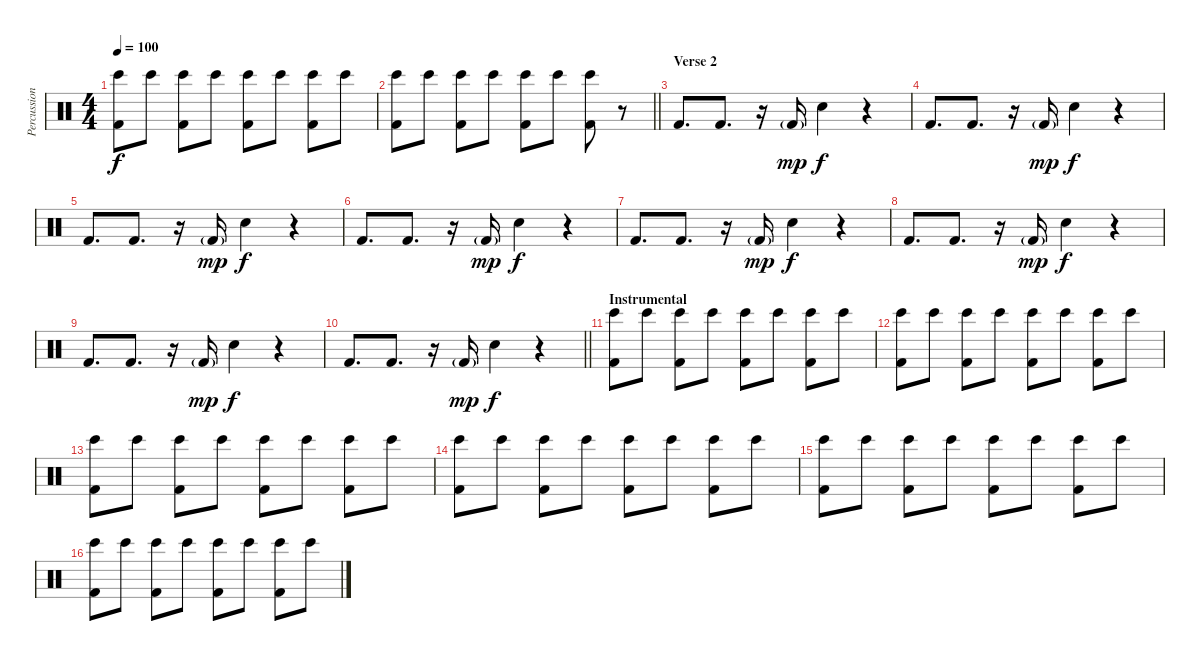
\track ("Percussion" "Percussion") {instrument percussion}
\staff {score}
\articulation defaults
\ts (4 4)
\tempo 100
\clef neutral
\ks c
("Bongo High (hit)" "Kick (hit) 2").8{dy f} "Bongo High (hit)".8 ("Bongo High (hit)" "Kick (hit) 2").8 "Bongo High (hit)".8 ("Bongo High (hit)" "Kick (hit) 2").8 "Bongo High (hit)".8 ("Bongo High (hit)" "Kick (hit) 2").8 "Bongo High (hit)".8 |
\barLineRight lightlight
("Bongo High (hit)" "Kick (hit) 2").8 "Bongo High (hit)".8 ("Bongo High (hit)" "Kick (hit) 2").8 "Bongo High (hit)".8 ("Bongo High (hit)" "Kick (hit) 2").8 "Bongo High (hit)".8 ("Bongo High (hit)" "Kick (hit) 2").8 r.8 |
\section ("" "Verse 2")
"Kick (hit) 2".8{d} "Kick (hit) 2".8{d} r.16 "Kick (hit) 2"{g}.16{dy mp} "Snare (hit) 2".4{dy f} r.4 |
"Kick (hit) 2".8{d} "Kick (hit) 2".8{d} r.16 "Kick (hit) 2"{g}.16{dy mp} "Snare (hit) 2".4{dy f} r.4 |
"Kick (hit) 2".8{d} "Kick (hit) 2".8{d} r.16 "Kick (hit) 2"{g}.16{dy mp} "Snare (hit) 2".4{dy f} r.4 |
"Kick (hit) 2".8{d} "Kick (hit) 2".8{d} r.16 "Kick (hit) 2"{g}.16{dy mp} "Snare (hit) 2".4{dy f} r.4 |
"Kick (hit) 2".8{d} "Kick (hit) 2".8{d} r.16 "Kick (hit) 2"{g}.16{dy mp} "Snare (hit) 2".4{dy f} r.4 |
"Kick (hit) 2".8{d} "Kick (hit) 2".8{d} r.16 "Kick (hit) 2"{g}.16{dy mp} "Snare (hit) 2".4{dy f} r.4 |
"Kick (hit) 2".8{d} "Kick (hit) 2".8{d} r.16 "Kick (hit) 2"{g}.16{dy mp} "Snare (hit) 2".4{dy f} r.4 |
\barLineRight lightlight "Kick (hit) 2".8{d} "Kick (hit) 2".8{d}
r.16 "Kick (hit) 2"{g}.16{dy mp} "Snare (hit) 2".4{dy f} r.4 |
\section ("" "Instrumental")
("Bongo High (hit)" "Kick (hit) 2").8 "Bongo High (hit)".8 ("Bongo High (hit)" "Kick (hit) 2").8 "Bongo High (hit)".8 ("Bongo High (hit)" "Kick (hit) 2").8 "Bongo High (hit)".8 ("Bongo High (hit)" "Kick (hit) 2").8 "Bongo High (hit)".8 |
("Bongo High (hit)" "Kick (hit) 2").8 "Bongo High (hit)".8 ("Bongo High (hit)" "Kick (hit) 2").8 "Bongo High (hit)".8 ("Bongo High (hit)" "Kick (hit) 2").8 "Bongo High (hit)".8 ("Bongo High (hit)" "Kick (hit) 2").8 "Bongo High (hit)".8 |
("Bongo High (hit)" "Kick (hit) 2").8 "Bongo High (hit)".8 ("Bongo High (hit)" "Kick (hit) 2").8 "Bongo High (hit)".8 ("Bongo High (hit)" "Kick (hit) 2").8 "Bongo High (hit)".8 ("Bongo High (hit)" "Kick (hit) 2").8 "Bongo High (hit)".8 |
("Bongo High (hit)" "Kick (hit) 2").8 "Bongo High (hit)".8 ("Bongo High (hit)" "Kick (hit) 2").8 "Bongo High (hit)".8 ("Bongo High (hit)" "Kick (hit) 2").8 "Bongo High (hit)".8 ("Bongo High (hit)" "Kick (hit) 2").8 "Bongo High (hit)".8 |
("Bongo High (hit)" "Kick (hit) 2").8 "Bongo High (hit)".8 ("Bongo High (hit)" "Kick (hit) 2").8 "Bongo High (hit)".8 ("Bongo High (hit)" "Kick (hit) 2").8 "Bongo High (hit)".8 ("Bongo High (hit)" "Kick (hit) 2").8 "Bongo High (hit)".8 |
("Bongo High (hit)" "Kick (hit) 2").8 "Bongo High (hit)".8 ("Bongo High (hit)" "Kick (hit) 2").8 "Bongo High (hit)".8 ("Bongo High (hit)" "Kick (hit) 2").8 "Bongo High (hit)".8 ("Bongo High (hit)" "Kick (hit) 2").8 "Bongo High (hit)".8
